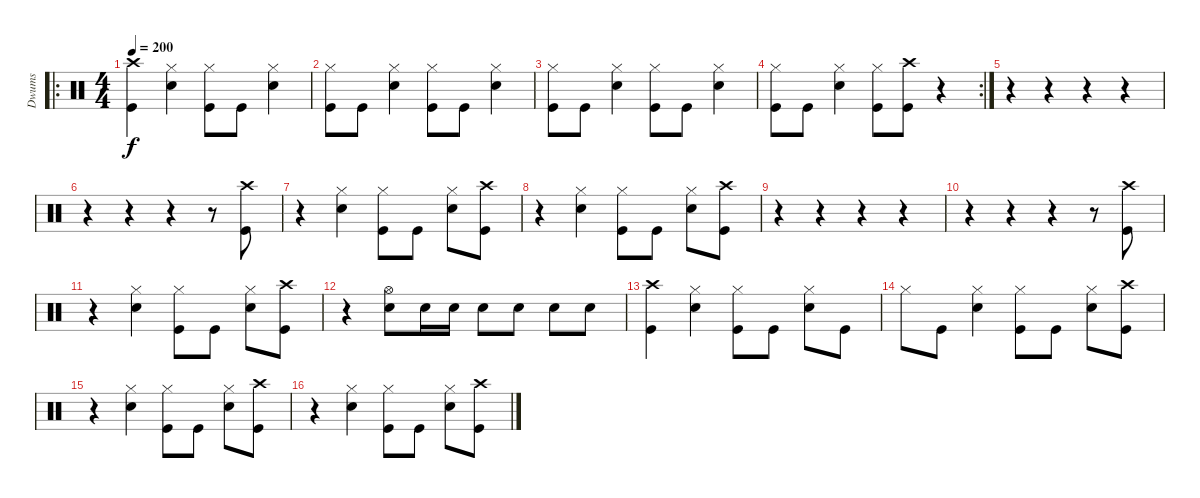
\track ("Dwums" "Dwums") {instrument percussion}
\staff {score}
\articulation defaults
\ro
\ts (4 4)
\tempo 200
\clef neutral
\ks c
("Crash high (hit)" "Kick (hit)").4{dy f} ("Hi-Hat (closed)" "Snare (hit) 2").4 ("Hi-Hat (closed)" "Kick (hit)").8 "Kick (hit)".8 ("Hi-Hat (closed)" "Snare (hit) 2").4 |
("Hi-Hat (closed)" "Kick (hit)").8 "Kick (hit)".8 ("Hi-Hat (closed)" "Snare (hit) 2").4 ("Hi-Hat (closed)" "Kick (hit)").8 "Kick (hit)".8 ("Hi-Hat (closed)" "Snare (hit) 2").4 |
("Hi-Hat (closed)" "Kick (hit)").8 "Kick (hit)".8 ("Hi-Hat (closed)" "Snare (hit) 2").4 ("Hi-Hat (closed)" "Kick (hit)").8 "Kick (hit)".8 ("Hi-Hat (closed)" "Snare (hit) 2").4 |
\rc 2
("Hi-Hat (closed)" "Kick (hit)").8 "Kick (hit)".8 ("Hi-Hat (closed)" "Snare (hit) 2").4 ("Hi-Hat (closed)" "Kick (hit)").8 ("Kick (hit)" "Crash high (hit)").8 r.4 |
r.4 r.4 r.4 r.4 |
r.4 r.4 r.4 r.8 ("Kick (hit)" "Crash high (hit)").8 |
r.4 ("Hi-Hat (closed)" "Snare (hit) 2").4 ("Hi-Hat (closed)" "Kick (hit)").8 "Kick (hit)".8 ("Snare (hit) 2" "Hi-Hat (closed)").8 ("Kick (hit)" "Crash high (hit)").8 |
r.4 ("Hi-Hat (closed)" "Snare (hit) 2").4 ("Hi-Hat (closed)" "Kick (hit)").8 "Kick (hit)".8 ("Snare (hit) 2" "Hi-Hat (closed)").8 ("Kick (hit)" "Crash high (hit)").8 |
r.4 r.4 r.4 r.4 |
r.4 r.4 r.4 r.8 ("Crash high (hit)" "Kick (hit)").8 |
r.4 ("Hi-Hat (closed)" "Snare (hit) 2").4 ("Hi-Hat (closed)" "Kick (hit)").8 "Kick (hit)".8 ("Snare (hit) 2" "Hi-Hat (closed)").8 ("Kick (hit)" "Crash high (hit)").8 |
r.4 ("Snare (hit) 2" "Hi-Hat (open)").8 "Snare (hit) 2".16 "Snare (hit) 2".16 "Snare (hit) 2".8 "Snare (hit) 2".8 "Snare (hit) 2".8 "Snare (hit) 2".8 |
("Kick (hit)" "Crash high (hit)").4 ("Snare (hit) 2" "Hi-Hat (closed)").4 ("Hi-Hat (closed)" "Kick (hit)").8 "Kick (hit)".8 ("Hi-Hat (closed)" "Snare (hit) 2").8 "Kick (hit)".8 |
"Hi-Hat (closed)".8 "Kick (hit)".8 ("Snare (hit) 2" "Hi-Hat (closed)").4 ("Hi-Hat (closed)" "Kick (hit)").8 "Kick (hit)".8 ("Hi-Hat (closed)" "Snare (hit) 2").8 ("Kick (hit)" "Crash high (hit)").8 |
r.4 ("Hi-Hat (closed)" "Snare (hit) 2").4 ("Hi-Hat (closed)" "Kick (hit)").8 "Kick (hit)".8 ("Snare (hit) 2" "Hi-Hat (closed)").8 ("Kick (hit)" "Crash high (hit)").8 |
r.4 ("Hi-Hat (closed)" "Snare (hit) 2").4 ("Hi-Hat (closed)" "Kick (hit)").8 "Kick (hit)".8 ("Snare (hit) 2" "Hi-Hat (closed)").8 ("Kick (hit)" "Crash high (hit)").8
